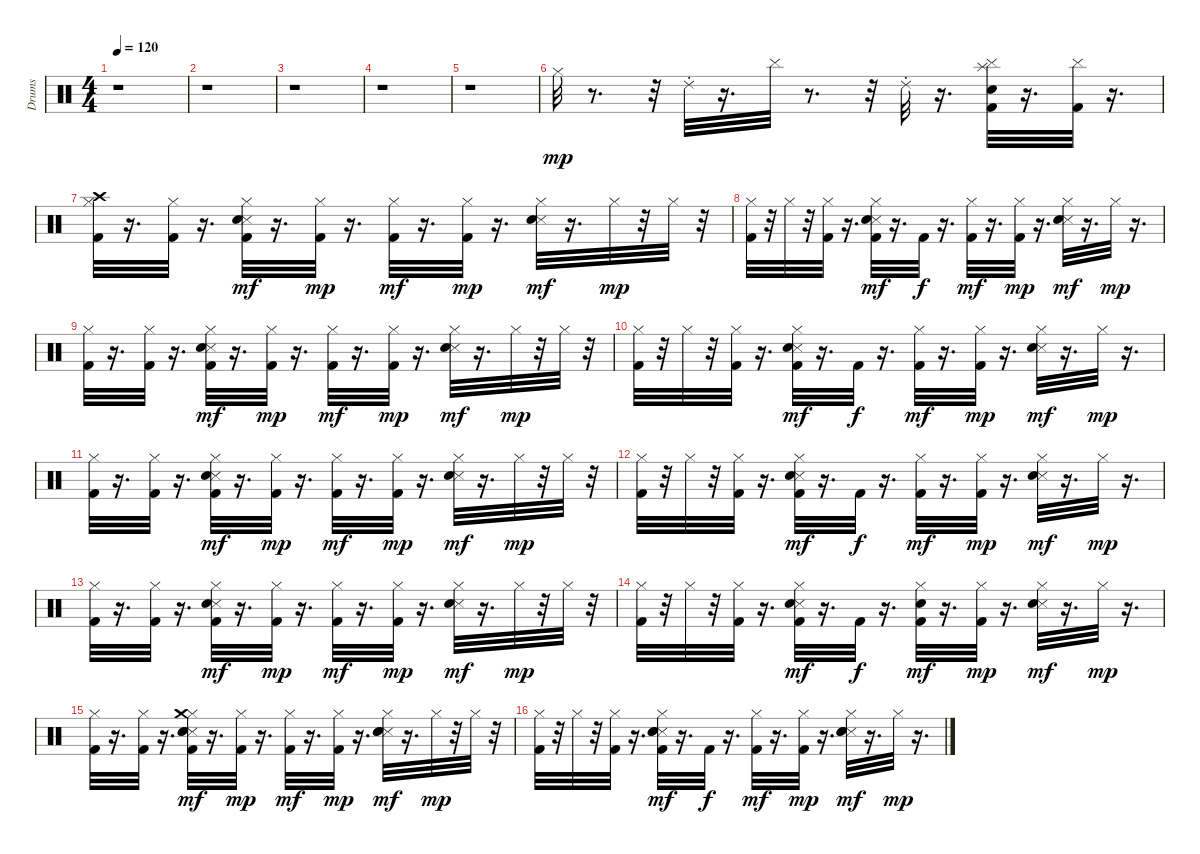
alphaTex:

\track ("Drums" "Drums") {instrument percussion}
\staff {score}
\articulation defaults
\ts (4 4)
\tempo 120
\clef neutral
\ks c
r.1{dy p} |
r.1 |
r.1 |
r.1 |
r.1 |
"Hi-Hat (closed)".32{dy mp} r.8{d} r.32 "Ride (choke) 2".32 r.16{d} "Cymbal (hit)".32 r.8{d} r.32 "Ride (choke) 2".32 r.16{d} ("Cymbal (hit)" "Kick (hit) 2" "Snare (hit) 2" "Splash (hit)").32 r.16{d} ("Cymbal (hit)" "Kick (hit) 2").32 r.16{d} |
("Kick (hit) 2" "Hi-Hat (closed)" "Crash high (hit)").32 r.16{d} ("Kick (hit) 2" "Hi-Hat (closed)").32 r.16{d} ("Metronome (hit)" "Kick (hit) 2" "Snare (hit) 2" "Hi-Hat (closed)").32{dy mf} r.16{d} ("Kick (hit) 2" "Hi-Hat (closed)").32{dy mp} r.16{d} ("Kick (hit) 2" "Hi-Hat (closed)").32{dy mf} r.16{d} ("Kick (hit) 2" "Hi-Hat (closed)").32{dy mp} r.16{d} ("Metronome (hit)" "Snare (hit) 2" "Hi-Hat (closed)").32{dy mf} r.16{d} "Hi-Hat (closed)".32{dy mp} r.32 "Hi-Hat (closed)".32 r.32 |
("Kick (hit) 2" "Hi-Hat (closed)").32 r.32 "Hi-Hat (closed)".32 r.32 ("Kick (hit) 2" "Hi-Hat (closed)").32 r.16{d} ("Metronome (hit)" "Kick (hit) 2" "Snare (hit) 2" "Hi-Hat (closed)").32{dy mf} r.16{d} "Kick (hit) 2".32{dy f} r.16{d} ("Kick (hit) 2" "Hi-Hat (closed)").32{dy mf} r.16{d} ("Kick (hit) 2" "Hi-Hat (closed)").32{dy mp} r.16{d} ("Metronome (hit)" "Snare (hit) 2" "Hi-Hat (closed)").32{dy mf} r.16{d} "Hi-Hat (closed)".32{dy mp} r.16{d} |
("Kick (hit) 2" "Hi-Hat (closed)").32 r.16{d} ("Kick (hit) 2" "Hi-Hat (closed)").32 r.16{d} ("Metronome (hit)" "Kick (hit) 2" "Snare (hit) 2" "Hi-Hat (closed)").32{dy mf} r.16{d} ("Kick (hit) 2" "Hi-Hat (closed)").32{dy mp} r.16{d} ("Kick (hit) 2" "Hi-Hat (closed)").32{dy mf} r.16{d} ("Kick (hit) 2" "Hi-Hat (closed)").32{dy mp} r.16{d} ("Metronome (hit)" "Snare (hit) 2" "Hi-Hat (closed)").32{dy mf} r.16{d} "Hi-Hat (closed)".32{dy mp} r.32 "Hi-Hat (closed)".32 r.32 |
("Kick (hit) 2" "Hi-Hat (closed)").32 r.32 "Hi-Hat (closed)".32 r.32 ("Kick (hit) 2" "Hi-Hat (closed)").32 r.16{d} ("Metronome (hit)" "Kick (hit) 2" "Snare (hit) 2" "Hi-Hat (closed)").32{dy mf} r.16{d} "Kick (hit) 2".32{dy f} r.16{d} ("Kick (hit) 2" "Hi-Hat (closed)").32{dy mf} r.16{d} ("Kick (hit) 2" "Hi-Hat (closed)").32{dy mp} r.16{d} ("Metronome (hit)" "Snare (hit) 2" "Hi-Hat (closed)").32{dy mf} r.16{d} "Hi-Hat (closed)".32{dy mp} r.16{d} |
("Kick (hit) 2" "Hi-Hat (closed)").32 r.16{d} ("Kick (hit) 2" "Hi-Hat (closed)").32 r.16{d} ("Metronome (hit)" "Kick (hit) 2" "Snare (hit) 2" "Hi-Hat (closed)").32{dy mf} r.16{d} ("Kick (hit) 2" "Hi-Hat (closed)").32{dy mp} r.16{d} ("Kick (hit) 2" "Hi-Hat (closed)").32{dy mf} r.16{d} ("Kick (hit) 2" "Hi-Hat (closed)").32{dy mp} r.16{d} ("Metronome (hit)" "Snare (hit) 2" "Hi-Hat (closed)").32{dy mf} r.16{d} "Hi-Hat (closed)".32{dy mp} r.32 "Hi-Hat (closed)".32 r.32 |
("Kick (hit) 2" "Hi-Hat (closed)").32 r.32 "Hi-Hat (closed)".32 r.32 ("Kick (hit) 2" "Hi-Hat (closed)").32 r.16{d} ("Metronome (hit)" "Kick (hit) 2" "Snare (hit) 2" "Hi-Hat (closed)").32{dy mf} r.16{d} "Kick (hit) 2".32{dy f} r.16{d} ("Kick (hit) 2" "Hi-Hat (closed)").32{dy mf} r.16{d} ("Kick (hit) 2" "Hi-Hat (closed)").32{dy mp} r.16{d} ("Metronome (hit)" "Snare (hit) 2" "Hi-Hat (closed)").32{dy mf} r.16{d} "Hi-Hat (closed)".32{dy mp} r.16{d} |
("Kick (hit) 2" "Hi-Hat (closed)").32 r.16{d} ("Kick (hit) 2" "Hi-Hat (closed)").32 r.16{d} ("Metronome (hit)" "Kick (hit) 2" "Snare (hit) 2" "Hi-Hat (closed)").32{dy mf} r.16{d} ("Kick (hit) 2" "Hi-Hat (closed)").32{dy mp} r.16{d} ("Kick (hit) 2" "Hi-Hat (closed)").32{dy mf} r.16{d} ("Kick (hit) 2" "Hi-Hat (closed)").32{dy mp} r.16{d} ("Metronome (hit)" "Snare (hit) 2" "Hi-Hat (closed)").32{dy mf} r.16{d} "Hi-Hat (closed)".32{dy mp} r.32 "Hi-Hat (closed)".32 r.32 |
("Kick (hit) 2" "Hi-Hat (closed)").32 r.32 "Hi-Hat (closed)".32 r.32 ("Kick (hit) 2" "Hi-Hat (closed)").32 r.16{d} ("Metronome (hit)" "Kick (hit) 2" "Snare (hit) 2" "Hi-Hat (closed)").32{dy mf} r.16{d} "Kick (hit) 2".32{dy f} r.16{d} ("Kick (hit) 2" "Snare (hit) 2" "Hi-Hat (closed)").32{dy mf} r.16{d} ("Kick (hit) 2" "Hi-Hat (closed)").32{dy mp} r.16{d} ("Metronome (hit)" "Snare (hit) 2" "Hi-Hat (closed)").32{dy mf} r.16{d} "Hi-Hat (closed)".32{dy mp} r.16{d} |
("Kick (hit) 2" "Hi-Hat (closed)").32 r.16{d} ("Kick (hit) 2" "Hi-Hat (closed)").32 r.16{d} ("Metronome (hit)" "Kick (hit) 2" "Snare (hit) 2" "Hand Clap (hit)" "Hi-Hat (closed)" "Crash medium (hit)").32{dy mf} r.16{d} ("Kick (hit) 2" "Hi-Hat (closed)").32{dy mp} r.16{d} ("Kick (hit) 2" "Hi-Hat (closed)").32{dy mf} r.16{d} ("Kick (hit) 2" "Hi-Hat (closed)").32{dy mp} r.16{d} ("Metronome (hit)" "Snare (hit) 2" "Hand Clap (hit)" "Hi-Hat (closed)").32{dy mf} r.16{d} "Hi-Hat (closed)".32{dy mp} r.32 "Hi-Hat (closed)".32 r.32 |
("Kick (hit) 2" "Hi-Hat (closed)").32 r.32 "Hi-Hat (closed)".32 r.32 ("Kick (hit) 2" "Hi-Hat (closed)").32 r.16{d} ("Metronome (hit)" "Kick (hit) 2" "Snare (hit) 2" "Hand Clap (hit)" "Hi-Hat (closed)").32{dy mf} r.16{d} "Kick (hit) 2".32{dy f} r.16{d} ("Kick (hit) 2" "Hi-Hat (closed)").32{dy mf} r.16{d} ("Kick (hit) 2" "Hi-Hat (closed)").32{dy mp} r.16{d} ("Metronome (hit)" "Snare (hit) 2" "Hand Clap (hit)" "Hi-Hat (closed)").32{dy mf} r.16{d} "Hi-Hat (closed)".32{dy mp} r.16{d}
